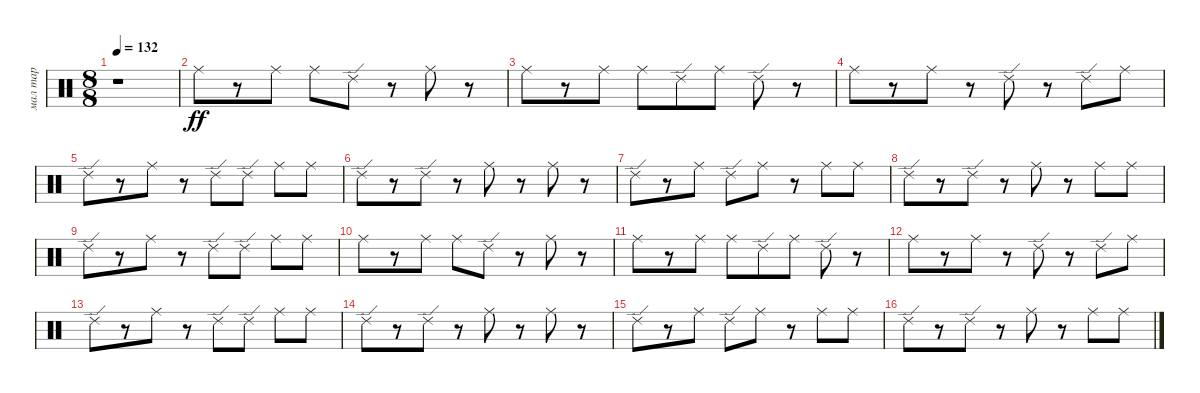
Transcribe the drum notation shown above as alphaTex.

\track ("мал тар" "мал тар") {instrument percussion}
\staff {score}
\articulation defaults
\ts (8 8)
\tempo 132
\clef neutral
\ks c
r.1{dy f} |
"Ride (middle)".8{dy ff} r.8 "Ride (middle)".8 "Ride (middle)".8 "Ride (edge) 2".8 r.8 "Ride (middle)".8 r.8 |
"Ride (middle)".8 r.8 "Ride (middle)".8 "Ride (middle)".8 "Ride (edge) 2".8 "Ride (middle)".8 "Ride (edge) 2".8 r.8 |
"Ride (middle)".8 r.8 "Ride (middle)".8 r.8 "Ride (edge) 2".8 r.8 "Ride (edge) 2".8 "Ride (middle)".8 |
"Ride (edge) 2".8 r.8 "Ride (middle)".8 r.8 "Ride (edge) 2".8 "Ride (edge) 2".8 "Ride (middle)".8 "Ride (middle)".8 |
"Ride (edge) 2".8 r.8 "Ride (edge) 2".8 r.8 "Ride (middle)".8 r.8 "Ride (middle)".8 r.8 |
"Ride (edge) 2".8 r.8 "Ride (middle)".8 "Ride (edge) 2".8 "Ride (middle)".8 r.8 "Ride (middle)".8 "Ride (middle)".8 |
"Ride (edge) 2".8 r.8 "Ride (edge) 2".8 r.8 "Ride (middle)".8 r.8 "Ride (middle)".8 "Ride (middle)".8 |
"Ride (edge) 2".8 r.8 "Ride (middle)".8 r.8 "Ride (edge) 2".8 "Ride (edge) 2".8 "Ride (middle)".8 "Ride (middle)".8 |
"Ride (middle)".8 r.8 "Ride (middle)".8 "Ride (middle)".8 "Ride (edge) 2".8 r.8 "Ride (middle)".8 r.8 |
"Ride (middle)".8 r.8 "Ride (middle)".8 "Ride (middle)".8 "Ride (edge) 2".8 "Ride (middle)".8 "Ride (edge) 2".8 r.8 |
"Ride (middle)".8 r.8 "Ride (middle)".8 r.8 "Ride (edge) 2".8 r.8 "Ride (edge) 2".8 "Ride (middle)".8 |
"Ride (edge) 2".8 r.8 "Ride (middle)".8 r.8 "Ride (edge) 2".8 "Ride (edge) 2".8 "Ride (middle)".8 "Ride (middle)".8 |
"Ride (edge) 2".8 r.8 "Ride (edge) 2".8 r.8 "Ride (middle)".8 r.8 "Ride (middle)".8 r.8 |
"Ride (edge) 2".8 r.8 "Ride (middle)".8 "Ride (edge) 2".8 "Ride (middle)".8 r.8 "Ride (middle)".8 "Ride (middle)".8 |
"Ride (edge) 2".8 r.8 "Ride (edge) 2".8 r.8 "Ride (middle)".8 r.8 "Ride (middle)".8 "Ride (middle)".8
